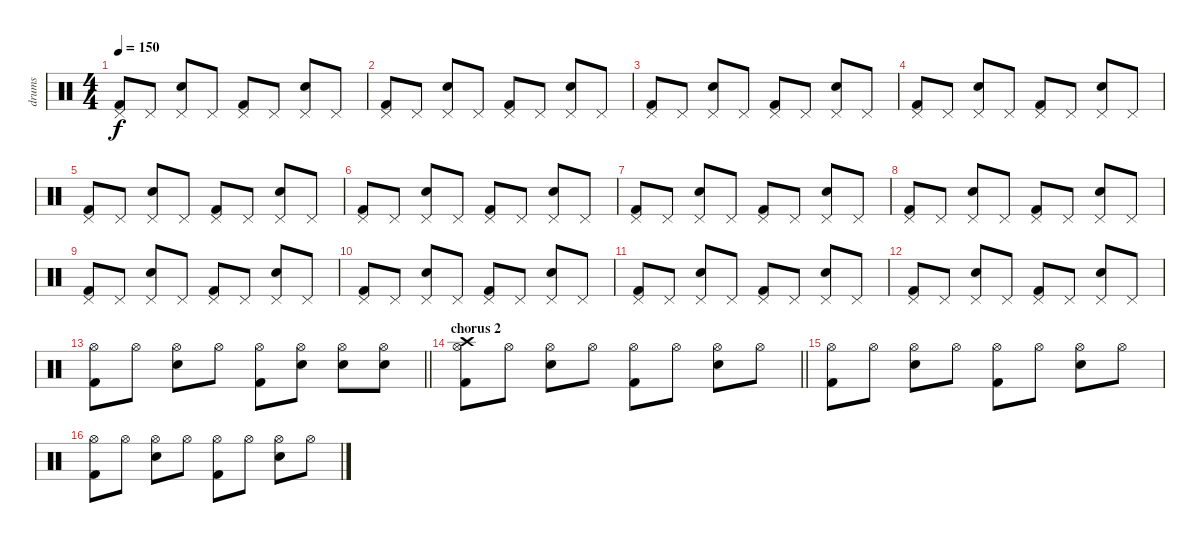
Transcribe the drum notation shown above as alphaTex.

\track ("drums" "drums") {instrument percussion}
\staff {score}
\articulation defaults
\ts (4 4)
\tempo 150
\clef neutral
\ks c
("Kick (hit) 2" "Pedal Hi-Hat (hit)").8{dy f} "Pedal Hi-Hat (hit)".8 ("Electric Snare (hit)" "Pedal Hi-Hat (hit)").8 "Pedal Hi-Hat (hit)".8 ("Kick (hit) 2" "Pedal Hi-Hat (hit)").8 "Pedal Hi-Hat (hit)".8 ("Electric Snare (hit)" "Pedal Hi-Hat (hit)").8 "Pedal Hi-Hat (hit)".8 |
("Kick (hit) 2" "Pedal Hi-Hat (hit)").8 "Pedal Hi-Hat (hit)".8 ("Electric Snare (hit)" "Pedal Hi-Hat (hit)").8 "Pedal Hi-Hat (hit)".8 ("Kick (hit) 2" "Pedal Hi-Hat (hit)").8 "Pedal Hi-Hat (hit)".8 ("Electric Snare (hit)" "Pedal Hi-Hat (hit)").8 "Pedal Hi-Hat (hit)".8 |
("Kick (hit) 2" "Pedal Hi-Hat (hit)").8 "Pedal Hi-Hat (hit)".8 ("Electric Snare (hit)" "Pedal Hi-Hat (hit)").8 "Pedal Hi-Hat (hit)".8 ("Kick (hit) 2" "Pedal Hi-Hat (hit)").8 "Pedal Hi-Hat (hit)".8 ("Electric Snare (hit)" "Pedal Hi-Hat (hit)").8 "Pedal Hi-Hat (hit)".8 |
("Kick (hit) 2" "Pedal Hi-Hat (hit)").8 "Pedal Hi-Hat (hit)".8 ("Electric Snare (hit)" "Pedal Hi-Hat (hit)").8 "Pedal Hi-Hat (hit)".8 ("Kick (hit) 2" "Pedal Hi-Hat (hit)").8 "Pedal Hi-Hat (hit)".8 ("Electric Snare (hit)" "Pedal Hi-Hat (hit)").8 "Pedal Hi-Hat (hit)".8 |
("Kick (hit) 2" "Pedal Hi-Hat (hit)").8 "Pedal Hi-Hat (hit)".8 ("Electric Snare (hit)" "Pedal Hi-Hat (hit)").8 "Pedal Hi-Hat (hit)".8 ("Kick (hit) 2" "Pedal Hi-Hat (hit)").8 "Pedal Hi-Hat (hit)".8 ("Electric Snare (hit)" "Pedal Hi-Hat (hit)").8 "Pedal Hi-Hat (hit)".8 |
("Kick (hit) 2" "Pedal Hi-Hat (hit)").8 "Pedal Hi-Hat (hit)".8 ("Electric Snare (hit)" "Pedal Hi-Hat (hit)").8 "Pedal Hi-Hat (hit)".8 ("Kick (hit) 2" "Pedal Hi-Hat (hit)").8 "Pedal Hi-Hat (hit)".8 ("Electric Snare (hit)" "Pedal Hi-Hat (hit)").8 "Pedal Hi-Hat (hit)".8 |
("Kick (hit) 2" "Pedal Hi-Hat (hit)").8 "Pedal Hi-Hat (hit)".8 ("Electric Snare (hit)" "Pedal Hi-Hat (hit)").8 "Pedal Hi-Hat (hit)".8 ("Kick (hit) 2" "Pedal Hi-Hat (hit)").8 "Pedal Hi-Hat (hit)".8 ("Electric Snare (hit)" "Pedal Hi-Hat (hit)").8 "Pedal Hi-Hat (hit)".8 |
("Kick (hit) 2" "Pedal Hi-Hat (hit)").8 "Pedal Hi-Hat (hit)".8 ("Electric Snare (hit)" "Pedal Hi-Hat (hit)").8 "Pedal Hi-Hat (hit)".8 ("Kick (hit) 2" "Pedal Hi-Hat (hit)").8 "Pedal Hi-Hat (hit)".8 ("Electric Snare (hit)" "Pedal Hi-Hat (hit)").8 "Pedal Hi-Hat (hit)".8 |
("Kick (hit) 2" "Pedal Hi-Hat (hit)").8 "Pedal Hi-Hat (hit)".8 ("Electric Snare (hit)" "Pedal Hi-Hat (hit)").8 "Pedal Hi-Hat (hit)".8 ("Kick (hit) 2" "Pedal Hi-Hat (hit)").8 "Pedal Hi-Hat (hit)".8 ("Electric Snare (hit)" "Pedal Hi-Hat (hit)").8 "Pedal Hi-Hat (hit)".8 |
("Kick (hit) 2" "Pedal Hi-Hat (hit)").8 "Pedal Hi-Hat (hit)".8 ("Electric Snare (hit)" "Pedal Hi-Hat (hit)").8 "Pedal Hi-Hat (hit)".8 ("Kick (hit) 2" "Pedal Hi-Hat (hit)").8 "Pedal Hi-Hat (hit)".8 ("Electric Snare (hit)" "Pedal Hi-Hat (hit)").8 "Pedal Hi-Hat (hit)".8 |
("Kick (hit) 2" "Pedal Hi-Hat (hit)").8 "Pedal Hi-Hat (hit)".8 ("Electric Snare (hit)" "Pedal Hi-Hat (hit)").8 "Pedal Hi-Hat (hit)".8 ("Kick (hit) 2" "Pedal Hi-Hat (hit)").8 "Pedal Hi-Hat (hit)".8 ("Electric Snare (hit)" "Pedal Hi-Hat (hit)").8 "Pedal Hi-Hat (hit)".8 |
("Kick (hit) 2" "Pedal Hi-Hat (hit)").8 "Pedal Hi-Hat (hit)".8 ("Electric Snare (hit)" "Pedal Hi-Hat (hit)").8 "Pedal Hi-Hat (hit)".8 ("Kick (hit) 2" "Pedal Hi-Hat (hit)").8 "Pedal Hi-Hat (hit)".8 ("Electric Snare (hit)" "Pedal Hi-Hat (hit)").8 "Pedal Hi-Hat (hit)".8 |
\barLineRight lightlight
("Kick (hit) 2" "Hi-Hat (open)").8 "Hi-Hat (open)".8 ("Electric Snare (hit)" "Hi-Hat (open)").8 "Hi-Hat (open)".8 ("Kick (hit) 2" "Hi-Hat (open)").8 ("Electric Snare (hit)" "Hi-Hat (open)").8{volume 16} ("Electric Snare (hit)" "Hi-Hat (open)").8 ("Electric Snare (hit)" "Hi-Hat (open)").8 |
\section ("" "chorus 2")
\barLineRight lightlight
("Kick (hit) 2" "Hi-Hat (open)" "Crash high (hit)").8 "Hi-Hat (open)".8 ("Electric Snare (hit)" "Hi-Hat (open)").8 "Hi-Hat (open)".8 ("Kick (hit) 2" "Hi-Hat (open)").8 "Hi-Hat (open)".8 ("Electric Snare (hit)" "Hi-Hat (open)").8 "Hi-Hat (open)".8 |
("Kick (hit) 2" "Hi-Hat (open)").8 "Hi-Hat (open)".8 ("Electric Snare (hit)" "Hi-Hat (open)").8 "Hi-Hat (open)".8 ("Kick (hit) 2" "Hi-Hat (open)").8 "Hi-Hat (open)".8 ("Electric Snare (hit)" "Hi-Hat (open)").8 "Hi-Hat (open)".8 |
("Kick (hit) 2" "Hi-Hat (open)").8 "Hi-Hat (open)".8 ("Electric Snare (hit)" "Hi-Hat (open)").8 "Hi-Hat (open)".8 ("Kick (hit) 2" "Hi-Hat (open)").8 "Hi-Hat (open)".8 ("Electric Snare (hit)" "Hi-Hat (open)").8 "Hi-Hat (open)".8
